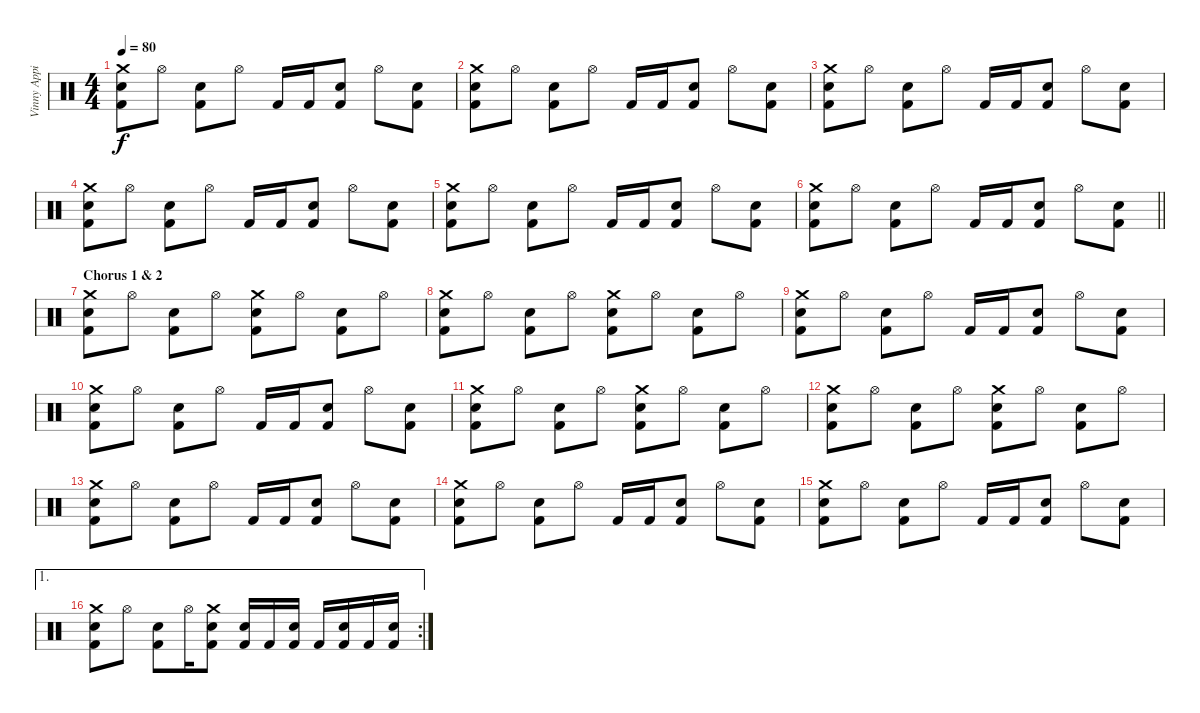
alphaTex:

\track ("Vinny Appice" "Vinny Appi") {instrument percussion}
\staff {score}
\articulation defaults
\ts (4 4)
\tempo 80
\clef neutral
\ks c
("Crash medium (hit)" "Snare (hit) 2" "Kick (hit) 2").8{dy f} "Hi-Hat (open)".8 ("Snare (hit) 2" "Kick (hit) 2").8 "Hi-Hat (open)".8 "Kick (hit) 2".16 "Kick (hit) 2".16 ("Snare (hit) 2" "Kick (hit) 2").8 "Hi-Hat (open)".8 ("Snare (hit) 2" "Kick (hit) 2").8 |
("Crash medium (hit)" "Snare (hit) 2" "Kick (hit) 2").8 "Hi-Hat (open)".8 ("Snare (hit) 2" "Kick (hit) 2").8 "Hi-Hat (open)".8 "Kick (hit) 2".16 "Kick (hit) 2".16 ("Snare (hit) 2" "Kick (hit) 2").8 "Hi-Hat (open)".8 ("Snare (hit) 2" "Kick (hit) 2").8 |
("Crash medium (hit)" "Snare (hit) 2" "Kick (hit) 2").8 "Hi-Hat (open)".8 ("Snare (hit) 2" "Kick (hit) 2").8 "Hi-Hat (open)".8 "Kick (hit) 2".16 "Kick (hit) 2".16 ("Snare (hit) 2" "Kick (hit) 2").8 "Hi-Hat (open)".8 ("Snare (hit) 2" "Kick (hit) 2").8 |
("Crash medium (hit)" "Snare (hit) 2" "Kick (hit) 2").8 "Hi-Hat (open)".8 ("Snare (hit) 2" "Kick (hit) 2").8 "Hi-Hat (open)".8 "Kick (hit) 2".16 "Kick (hit) 2".16 ("Snare (hit) 2" "Kick (hit) 2").8 "Hi-Hat (open)".8 ("Snare (hit) 2" "Kick (hit) 2").8 |
("Crash medium (hit)" "Snare (hit) 2" "Kick (hit) 2").8 "Hi-Hat (open)".8 ("Snare (hit) 2" "Kick (hit) 2").8 "Hi-Hat (open)".8 "Kick (hit) 2".16 "Kick (hit) 2".16 ("Snare (hit) 2" "Kick (hit) 2").8 "Hi-Hat (open)".8 ("Snare (hit) 2" "Kick (hit) 2").8 |
\barLineRight lightlight
("Crash medium (hit)" "Snare (hit) 2" "Kick (hit) 2").8 "Hi-Hat (open)".8 ("Snare (hit) 2" "Kick (hit) 2").8 "Hi-Hat (open)".8 "Kick (hit) 2".16 "Kick (hit) 2".16 ("Snare (hit) 2" "Kick (hit) 2").8 "Hi-Hat (open)".8 ("Snare (hit) 2" "Kick (hit) 2").8 |
\section ("" "Chorus 1 & 2")
("Crash medium (hit)" "Snare (hit) 2" "Kick (hit) 2").8 "Hi-Hat (open)".8 ("Snare (hit) 2" "Kick (hit) 2").8 "Hi-Hat (open)".8 ("Crash medium (hit)" "Snare (hit) 2" "Kick (hit) 2").8 "Hi-Hat (open)".8 ("Snare (hit) 2" "Kick (hit) 2").8 "Hi-Hat (open)".8 |
("Crash medium (hit)" "Snare (hit) 2" "Kick (hit) 2").8 "Hi-Hat (open)".8 ("Snare (hit) 2" "Kick (hit) 2").8 "Hi-Hat (open)".8 ("Crash medium (hit)" "Snare (hit) 2" "Kick (hit) 2").8 "Hi-Hat (open)".8 ("Snare (hit) 2" "Kick (hit) 2").8 "Hi-Hat (open)".8 |
("Crash medium (hit)" "Snare (hit) 2" "Kick (hit) 2").8 "Hi-Hat (open)".8 ("Snare (hit) 2" "Kick (hit) 2").8 "Hi-Hat (open)".8 "Kick (hit) 2".16 "Kick (hit) 2".16 ("Snare (hit) 2" "Kick (hit) 2").8 "Hi-Hat (open)".8 ("Snare (hit) 2" "Kick (hit) 2").8 |
("Crash medium (hit)" "Snare (hit) 2" "Kick (hit) 2").8 "Hi-Hat (open)".8 ("Snare (hit) 2" "Kick (hit) 2").8 "Hi-Hat (open)".8 "Kick (hit) 2".16 "Kick (hit) 2".16 ("Snare (hit) 2" "Kick (hit) 2").8 "Hi-Hat (open)".8 ("Snare (hit) 2" "Kick (hit) 2").8 |
("Crash medium (hit)" "Snare (hit) 2" "Kick (hit) 2").8 "Hi-Hat (open)".8 ("Snare (hit) 2" "Kick (hit) 2").8 "Hi-Hat (open)".8 ("Crash medium (hit)" "Snare (hit) 2" "Kick (hit) 2").8 "Hi-Hat (open)".8 ("Snare (hit) 2" "Kick (hit) 2").8 "Hi-Hat (open)".8 |
("Crash medium (hit)" "Snare (hit) 2" "Kick (hit) 2").8 "Hi-Hat (open)".8 ("Snare (hit) 2" "Kick (hit) 2").8 "Hi-Hat (open)".8 ("Crash medium (hit)" "Snare (hit) 2" "Kick (hit) 2").8 "Hi-Hat (open)".8 ("Snare (hit) 2" "Kick (hit) 2").8 "Hi-Hat (open)".8 |
("Crash medium (hit)" "Snare (hit) 2" "Kick (hit) 2").8 "Hi-Hat (open)".8 ("Snare (hit) 2" "Kick (hit) 2").8 "Hi-Hat (open)".8 "Kick (hit) 2".16 "Kick (hit) 2".16 ("Snare (hit) 2" "Kick (hit) 2").8 "Hi-Hat (open)".8 ("Snare (hit) 2" "Kick (hit) 2").8 |
("Crash medium (hit)" "Snare (hit) 2" "Kick (hit) 2").8 "Hi-Hat (open)".8 ("Snare (hit) 2" "Kick (hit) 2").8 "Hi-Hat (open)".8 "Kick (hit) 2".16 "Kick (hit) 2".16 ("Snare (hit) 2" "Kick (hit) 2").8 "Hi-Hat (open)".8 ("Snare (hit) 2" "Kick (hit) 2").8 |
("Crash medium (hit)" "Snare (hit) 2" "Kick (hit) 2").8 "Hi-Hat (open)".8 ("Snare (hit) 2" "Kick (hit) 2").8 "Hi-Hat (open)".8 "Kick (hit) 2".16 "Kick (hit) 2".16 ("Snare (hit) 2" "Kick (hit) 2").8 "Hi-Hat (open)".8 ("Snare (hit) 2" "Kick (hit) 2").8 |
\ae 1
\rc 2
("Crash medium (hit)" "Snare (hit) 2" "Kick (hit) 2").8 "Hi-Hat (open)".8 ("Snare (hit) 2" "Kick (hit) 2").8 "Hi-Hat (open)".16 ("Crash medium (hit)" "Snare (hit) 2" "Kick (hit) 2").8 ("Snare (hit) 2" "Kick (hit) 2").16 "Kick (hit) 2".16 ("Snare (hit) 2" "Kick (hit) 2").16 "Kick (hit) 2".16 ("Snare (hit) 2" "Kick (hit) 2").16 "Kick (hit) 2".16 ("Snare (hit) 2" "Kick (hit) 2").16
